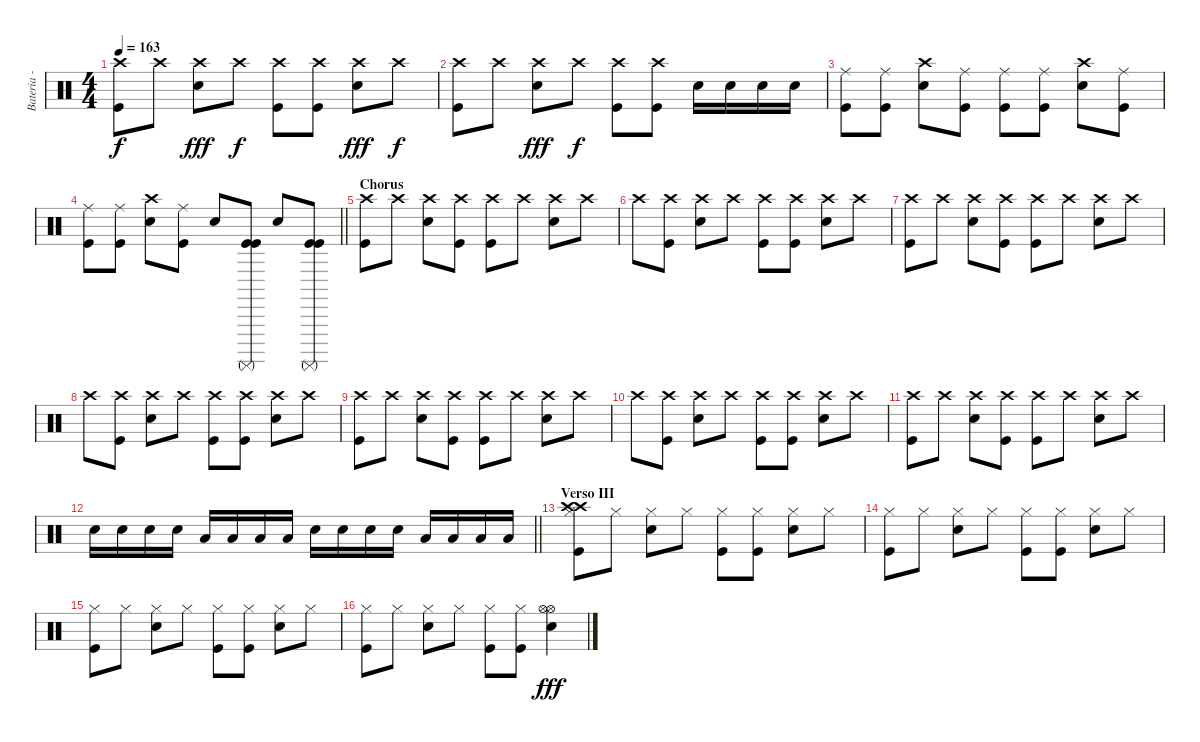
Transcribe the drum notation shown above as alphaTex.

\track ("Bateria - Larzon " "Bateria - ") {instrument percussion}
\staff {score}
\articulation defaults
\ts (4 4)
\tempo 163
\clef neutral
\ks c
("Kick (hit)" "Crash high (hit)").8{dy f} "Crash high (hit)".8 ("Electric Snare (hit)" "Crash high (hit)").8{dy fff} "Crash high (hit)".8{dy f} ("Kick (hit)" "Crash high (hit)").8 ("Kick (hit)" "Crash high (hit)").8 ("Electric Snare (hit)" "Crash high (hit)").8{dy fff} "Crash high (hit)".8{dy f} |
("Kick (hit)" "Crash high (hit)").8 "Crash high (hit)".8 ("Electric Snare (hit)" "Crash high (hit)").8{dy fff} "Crash high (hit)".8{dy f} ("Kick (hit)" "Crash high (hit)").8 ("Kick (hit)" "Crash high (hit)").8 "Electric Snare (hit)".16 "Electric Snare (hit)".16 "Electric Snare (hit)".16 "Electric Snare (hit)".16 |
("Kick (hit)" "Ride (middle)").8 ("Kick (hit)" "Ride (middle)").8 ("Electric Snare (hit)" "Crash high (hit)").8 ("Kick (hit)" "Ride (middle)").8 ("Kick (hit)" "Ride (middle)").8 ("Kick (hit)" "Ride (middle)").8 ("Electric Snare (hit)" "Crash high (hit)").8 ("Kick (hit)" "Ride (middle)").8 |
\barLineRight lightlight
("Kick (hit)" "Ride (middle)").8 ("Kick (hit)" "Ride (middle)").8 ("Electric Snare (hit)" "Crash high (hit)").8 ("Kick (hit)" "Ride (middle)").8 "Electric Snare (hit)".8 ("Kick (hit)" "Surdo (mute)" "Kick (hit)").8 "Electric Snare (hit)".8 ("Kick (hit)" "Surdo (mute)" "Kick (hit)").8 |
\section ("" "Chorus")
("Kick (hit)" "Crash high (hit)").8 "Crash high (hit)".8 ("Electric Snare (hit)" "Crash high (hit)").8 ("Kick (hit)" "Crash high (hit)").8 ("Kick (hit)" "Crash high (hit)").8 "Crash high (hit)".8 ("Electric Snare (hit)" "Crash high (hit)").8 "Crash high (hit)".8 |
"Crash high (hit)".8 ("Kick (hit)" "Crash high (hit)").8 ("Electric Snare (hit)" "Crash high (hit)").8 "Crash high (hit)".8 ("Kick (hit)" "Crash high (hit)").8 ("Kick (hit)" "Crash high (hit)").8 ("Electric Snare (hit)" "Crash high (hit)").8 "Crash high (hit)".8 |
("Kick (hit)" "Crash high (hit)").8 "Crash high (hit)".8 ("Electric Snare (hit)" "Crash high (hit)").8 ("Kick (hit)" "Crash high (hit)").8 ("Kick (hit)" "Crash high (hit)").8 "Crash high (hit)".8 ("Electric Snare (hit)" "Crash high (hit)").8 "Crash high (hit)".8 |
"Crash high (hit)".8 ("Kick (hit)" "Crash high (hit)").8 ("Electric Snare (hit)" "Crash high (hit)").8 "Crash high (hit)".8 ("Kick (hit)" "Crash high (hit)").8 ("Kick (hit)" "Crash high (hit)").8 ("Electric Snare (hit)" "Crash high (hit)").8 "Crash high (hit)".8 |
("Kick (hit)" "Crash high (hit)").8 "Crash high (hit)".8 ("Electric Snare (hit)" "Crash high (hit)").8 ("Kick (hit)" "Crash high (hit)").8 ("Kick (hit)" "Crash high (hit)").8 "Crash high (hit)".8 ("Electric Snare (hit)" "Crash high (hit)").8 "Crash high (hit)".8 |
"Crash high (hit)".8 ("Kick (hit)" "Crash high (hit)").8 ("Electric Snare (hit)" "Crash high (hit)").8 "Crash high (hit)".8 ("Kick (hit)" "Crash high (hit)").8 ("Kick (hit)" "Crash high (hit)").8 ("Electric Snare (hit)" "Crash high (hit)").8 "Crash high (hit)".8 |
("Kick (hit)" "Crash high (hit)").8 "Crash high (hit)".8 ("Electric Snare (hit)" "Crash high (hit)").8 ("Kick (hit)" "Crash high (hit)").8 ("Kick (hit)" "Crash high (hit)").8 "Crash high (hit)".8 ("Electric Snare (hit)" "Crash high (hit)").8 "Crash high (hit)".8 |
\barLineRight lightlight "Electric Snare (hit)".16 "Electric Snare (hit)".16 "Electric Snare (hit)".16 "Electric Snare (hit)".16 "Low Tom (hit)".16 "Low Tom (hit)".16 "Low Tom (hit)".16 "Low Tom (hit)".16 "Electric Snare (hit)".16 "Electric Snare (hit)".16 "Electric Snare (hit)".16 "Electric Snare (hit)".16 "Low Tom (hit)".16 "Low Tom (hit)".16 "Low Tom (hit)".16 "Low Tom (hit)".16
|
\section ("" "Verso III")
("Kick (hit)" "Hi-Hat (closed)" "Crash high (hit)" "Crash high (hit)").8 "Hi-Hat (closed)".8 ("Electric Snare (hit)" "Hi-Hat (closed)").8 "Hi-Hat (closed)".8 ("Kick (hit)" "Hi-Hat (closed)").8 ("Kick (hit)" "Hi-Hat (closed)").8 ("Electric Snare (hit)" "Hi-Hat (closed)").8 "Hi-Hat (closed)".8 |
("Kick (hit)" "Hi-Hat (closed)").8 "Hi-Hat (closed)".8 ("Electric Snare (hit)" "Hi-Hat (closed)").8 "Hi-Hat (closed)".8 ("Kick (hit)" "Hi-Hat (closed)").8 ("Kick (hit)" "Hi-Hat (closed)").8 ("Electric Snare (hit)" "Hi-Hat (closed)").8 "Hi-Hat (closed)".8 |
("Kick (hit)" "Hi-Hat (closed)").8 "Hi-Hat (closed)".8 ("Electric Snare (hit)" "Hi-Hat (closed)").8 "Hi-Hat (closed)".8 ("Kick (hit)" "Hi-Hat (closed)").8 ("Kick (hit)" "Hi-Hat (closed)").8 ("Electric Snare (hit)" "Hi-Hat (closed)").8 "Hi-Hat (closed)".8 |
("Kick (hit)" "Hi-Hat (closed)").8 "Hi-Hat (closed)".8 ("Electric Snare (hit)" "Hi-Hat (closed)").8 "Hi-Hat (closed)".8 ("Kick (hit)" "Hi-Hat (closed)").8 ("Kick (hit)" "Hi-Hat (closed)").8 ("Electric Snare (hit)" "Hi-Hat (open)" "Hi-Hat (open)").4{dy fff}
